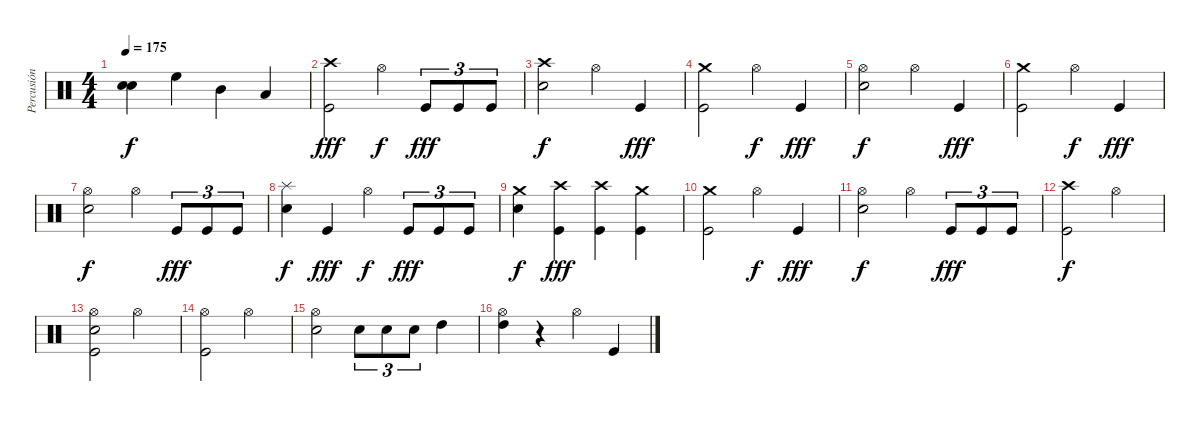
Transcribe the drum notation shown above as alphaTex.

\track ("Percusión" "Percusión") {instrument percussion}
\staff {score}
\articulation defaults
\ts (4 4)
\tempo 175
\clef neutral
\ks c
("Electric Snare (hit)" "Electric Snare (hit)").4{bd 480 dy f} "High Floor Tom (hit)".4 "Mid Tom (hit)".4 "Low Tom (hit)".4 |
("Crash high (hit)" "Kick (hit)").2{dy fff} "Hi-Hat (open)".4{dy f} "Kick (hit)".8{tu (3 2) dy fff} "Kick (hit)".8{tu (3 2)} "Kick (hit)".8{tu (3 2)} |
("Crash high (hit)" "Electric Snare (hit)").2{dy f} "Hi-Hat (open)".4 "Kick (hit)".4{dy fff} |
("Crash medium (hit)" "Kick (hit)").2 "Hi-Hat (open)".4{dy f} "Kick (hit)".4{dy fff} |
("Hi-Hat (open)" "Electric Snare (hit)").2{dy f} "Hi-Hat (open)".4 "Kick (hit)".4{dy fff} |
("Crash medium (hit)" "Kick (hit)").2 "Hi-Hat (open)".4{dy f} "Kick (hit)".4{dy fff} |
("Hi-Hat (open)" "Electric Snare (hit)").2{dy f} "Hi-Hat (open)".4 "Kick (hit)".8{tu (3 2) dy fff} "Kick (hit)".8{tu (3 2)} "Kick (hit)".8{tu (3 2)} |
("Splash (hit)" "Electric Snare (hit)").4{dy f} "Kick (hit)".4{dy fff} "Hi-Hat (open)".4{dy f} "Kick (hit)".8{tu (3 2) dy fff} "Kick (hit)".8{tu (3 2)} "Kick (hit)".8{tu (3 2)} |
("Crash medium (hit)" "Electric Snare (hit)").4{dy f} ("Crash high (hit)" "Kick (hit)").4{dy fff} ("Crash high (hit)" "Kick (hit)").4 ("Crash medium (hit)" "Kick (hit)").4 |
("Crash medium (hit)" "Kick (hit)").2 "Hi-Hat (open)".4{dy f} "Kick (hit)".4{dy fff} |
("Hi-Hat (open)" "Electric Snare (hit)").2{dy f} "Hi-Hat (open)".4 "Kick (hit)".8{tu (3 2) dy fff} "Kick (hit)".8{tu (3 2)} "Kick (hit)".8{tu (3 2)} |
("Crash high (hit)" "Kick (hit)").2{dy f} "Hi-Hat (open)".2 |
("Hi-Hat (open)" "Electric Snare (hit)" "Kick (hit)").2 "Hi-Hat (open)".2 |
("Hi-Hat (open)" "Kick (hit)").2 "Hi-Hat (open)".2 |
("Hi-Hat (open)" "Electric Snare (hit)").2 "Electric Snare (hit)".8{tu (3 2)} "Electric Snare (hit)".8{tu (3 2)} "Electric Snare (hit)".8{tu (3 2)} "High Tom (hit)".4 |
("Hi-Hat (open)" "High Tom (hit)").4 r.4 "Hi-Hat (open)".4 "Kick (hit)".4
